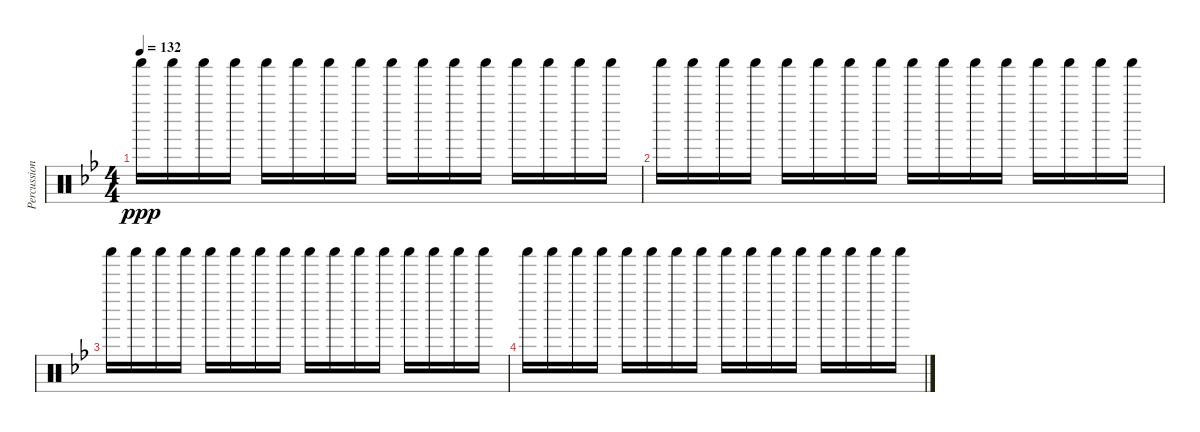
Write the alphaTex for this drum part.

\track ("Percussion" "Percussion") {instrument percussion}
\staff {score}
\articulation defaults
\ts (4 4)
\tempo 132
\clef neutral
\ks bb "Shaker (hit)".16{dy ppp} "Shaker (hit)".16 "Shaker (hit)".16 "Shaker (hit)".16 "Shaker (hit)".16 "Shaker (hit)".16 "Shaker (hit)".16 "Shaker (hit)".16 "Shaker (hit)".16 "Shaker (hit)".16 "Shaker (hit)".16 "Shaker (hit)".16 "Shaker (hit)".16 "Shaker (hit)".16 "Shaker (hit)".16 "Shaker (hit)".16
|
"Shaker (hit)".16 "Shaker (hit)".16 "Shaker (hit)".16 "Shaker (hit)".16 "Shaker (hit)".16 "Shaker (hit)".16 "Shaker (hit)".16 "Shaker (hit)".16 "Shaker (hit)".16 "Shaker (hit)".16 "Shaker (hit)".16 "Shaker (hit)".16 "Shaker (hit)".16 "Shaker (hit)".16 "Shaker (hit)".16 "Shaker (hit)".16 |
"Shaker (hit)".16 "Shaker (hit)".16 "Shaker (hit)".16 "Shaker (hit)".16 "Shaker (hit)".16 "Shaker (hit)".16 "Shaker (hit)".16 "Shaker (hit)".16 "Shaker (hit)".16 "Shaker (hit)".16 "Shaker (hit)".16 "Shaker (hit)".16 "Shaker (hit)".16 "Shaker (hit)".16 "Shaker (hit)".16 "Shaker (hit)".16 |
"Shaker (hit)".16 "Shaker (hit)".16 "Shaker (hit)".16 "Shaker (hit)".16 "Shaker (hit)".16 "Shaker (hit)".16 "Shaker (hit)".16 "Shaker (hit)".16 "Shaker (hit)".16 "Shaker (hit)".16 "Shaker (hit)".16 "Shaker (hit)".16 "Shaker (hit)".16 "Shaker (hit)".16 "Shaker (hit)".16 "Shaker (hit)".16
